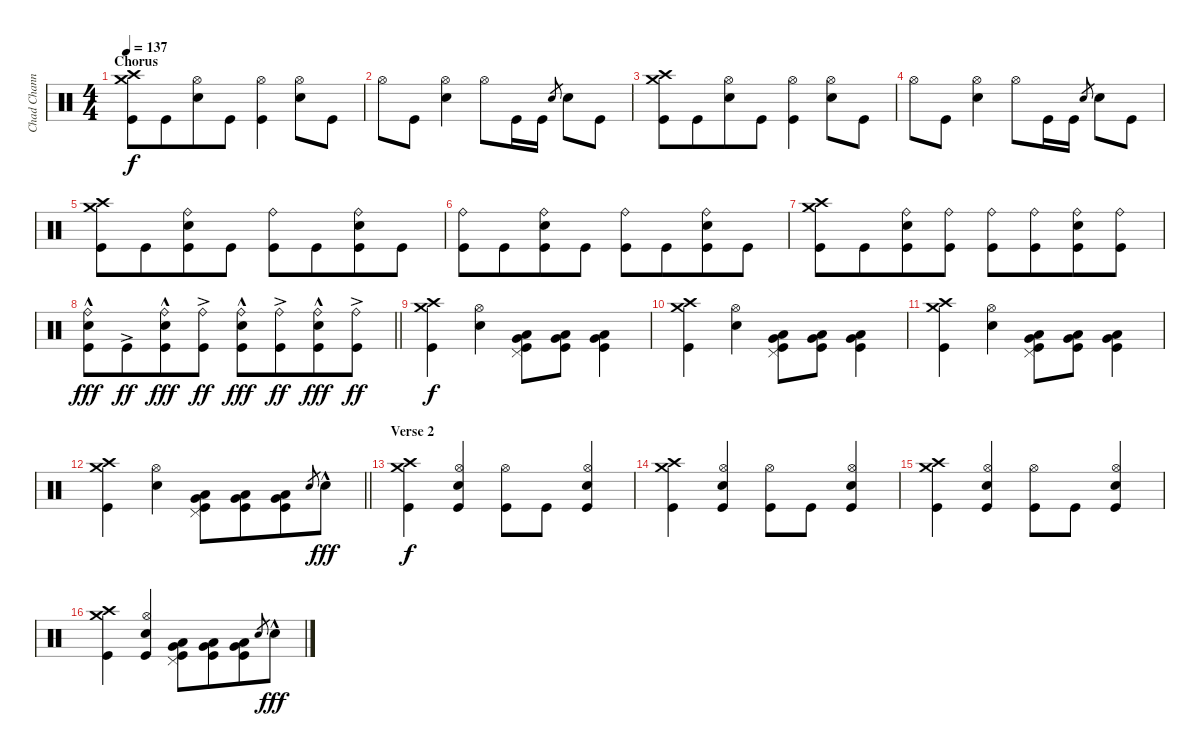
\track ("Chad Channing" "Chad Chann") {instrument percussion}
\staff {score}
\articulation defaults
\ts (4 4)
\section ("" "Chorus")
\tempo 137
\clef neutral
\ks c
("Crash high (hit)" "Crash medium (hit)" "Kick (hit)").8{dy f} "Kick (hit)".8{beam merge} ("Hi-Hat (open)" "Snare (hit) 2").8 "Kick (hit)".8 ("Hi-Hat (open)" "Kick (hit)").4 ("Hi-Hat (open)" "Snare (hit) 2").8 "Kick (hit)".8 |
"Hi-Hat (open)".8 "Kick (hit)".8 ("Hi-Hat (open)" "Snare (hit) 2").4 "Hi-Hat (open)".8 "Kick (hit)".16 "Kick (hit)".16 "Snare (hit) 2".8{gr} "Snare (hit) 2".8{beam Down} "Kick (hit)".8{beam Down} |
("Crash high (hit)" "Crash medium (hit)" "Kick (hit)").8 "Kick (hit)".8{beam merge} ("Hi-Hat (open)" "Snare (hit) 2").8 "Kick (hit)".8 ("Hi-Hat (open)" "Kick (hit)").4 ("Hi-Hat (open)" "Snare (hit) 2").8 "Kick (hit)".8 |
"Hi-Hat (open)".8 "Kick (hit)".8 ("Hi-Hat (open)" "Snare (hit) 2").4 "Hi-Hat (open)".8 "Kick (hit)".16 "Kick (hit)".16 "Snare (hit) 2".8{gr} "Snare (hit) 2".8{beam Down} "Kick (hit)".8{beam Down} |
("Crash medium (hit)" "Crash high (hit)" "Kick (hit)").8 "Kick (hit)".8{beam merge} ("Ride (bell)" "Snare (hit) 2" "Kick (hit)").8 "Kick (hit)".8 ("Ride (bell)" "Kick (hit)").8 "Kick (hit)".8{beam merge} ("Ride (bell)" "Snare (hit) 2" "Kick (hit)").8 "Kick (hit)".8 |
("Ride (bell)" "Kick (hit)").8 "Kick (hit)".8{beam merge} ("Ride (bell)" "Snare (hit) 2" "Kick (hit)").8 "Kick (hit)".8 ("Ride (bell)" "Kick (hit)").8 "Kick (hit)".8{beam merge} ("Ride (bell)" "Snare (hit) 2" "Kick (hit)").8 "Kick (hit)".8 |
("Crash medium (hit)" "Crash high (hit)" "Kick (hit)").8 "Kick (hit)".8{beam merge} ("Ride (bell)" "Snare (hit) 2" "Kick (hit)").8 ("Ride (bell)" "Kick (hit)").8 ("Ride (bell)" "Kick (hit)").8 ("Ride (bell)" "Kick (hit)").8{beam merge} ("Ride (bell)" "Snare (hit) 2" "Kick (hit)").8 ("Ride (bell)" "Kick (hit)").8 |
\barLineRight lightlight
("Ride (bell)" "Snare (hit) 2" "Kick (hit)"{hac}).8{dy fff} "Kick (hit)"{ac}.8{dy ff beam merge} ("Ride (bell)" "Snare (hit) 2" "Kick (hit)"{hac}).8{dy fff} ("Ride (bell)" "Kick (hit)"{ac}).8{dy ff} ("Ride (bell)" "Snare (hit) 2" "Kick (hit)"{hac}).8{dy fff} ("Ride (bell)" "Kick (hit)"{ac}).8{dy ff beam merge} ("Ride (bell)" "Snare (hit) 2" "Kick (hit)"{hac}).8{dy fff} ("Ride (bell)" "Kick (hit)"{ac}).8{dy ff} |
("Crash medium (hit)" "Crash high (hit)" "Kick (hit)").4{dy f} ("Hi-Hat (open)" "Snare (hit) 2").4 ("Pedal Hi-Hat (hit)" "Very Low Tom (hit)" "Low Floor Tom (hit)" "Kick (hit)").8{beam Down} ("Very Low Tom (hit)" "Low Floor Tom (hit)" "Kick (hit)").8{beam Down} ("Very Low Tom (hit)" "Low Floor Tom (hit)" "Kick (hit)").4{beam Down} |
("Crash medium (hit)" "Crash high (hit)" "Kick (hit)").4 ("Hi-Hat (open)" "Snare (hit) 2").4 ("Pedal Hi-Hat (hit)" "Very Low Tom (hit)" "Low Floor Tom (hit)" "Kick (hit)").8{beam Down} ("Very Low Tom (hit)" "Low Floor Tom (hit)" "Kick (hit)").8{beam Down} ("Very Low Tom (hit)" "Low Floor Tom (hit)" "Kick (hit)").4{beam Down} |
("Crash medium (hit)" "Crash high (hit)" "Kick (hit)").4 ("Hi-Hat (open)" "Snare (hit) 2").4 ("Pedal Hi-Hat (hit)" "Very Low Tom (hit)" "Low Floor Tom (hit)" "Kick (hit)").8{beam Down} ("Very Low Tom (hit)" "Low Floor Tom (hit)" "Kick (hit)").8{beam Down} ("Very Low Tom (hit)" "Low Floor Tom (hit)" "Kick (hit)").4{beam Down} |
\barLineRight lightlight
("Crash medium (hit)" "Crash high (hit)" "Kick (hit)").4 ("Hi-Hat (open)" "Snare (hit) 2").4 ("Pedal Hi-Hat (hit)" "Very Low Tom (hit)" "Low Floor Tom (hit)" "Kick (hit)").8{beam Down} ("Very Low Tom (hit)" "Low Floor Tom (hit)" "Kick (hit)").8{beam Down beam merge} ("Very Low Tom (hit)" "Low Floor Tom (hit)" "Kick (hit)").8{beam Down} "Snare (hit) 2".8{gr} "Snare (hit) 2"{hac}.8{dy fff beam Down} |
\section ("" "Verse 2")
("Crash medium (hit)" "Crash high (hit)" "Kick (hit)").4{dy f} ("Hi-Hat (open)" "Snare (hit) 2" "Kick (hit)").4 ("Hi-Hat (open)" "Kick (hit)").8 "Kick (hit)".8 ("Hi-Hat (open)" "Snare (hit) 2" "Kick (hit)").4 |
("Crash medium (hit)" "Crash high (hit)" "Kick (hit)").4 ("Hi-Hat (open)" "Snare (hit) 2" "Kick (hit)").4 ("Hi-Hat (open)" "Kick (hit)").8 "Kick (hit)".8 ("Hi-Hat (open)" "Snare (hit) 2" "Kick (hit)").4 |
("Crash medium (hit)" "Crash high (hit)" "Kick (hit)").4 ("Hi-Hat (open)" "Snare (hit) 2" "Kick (hit)").4 ("Hi-Hat (open)" "Kick (hit)").8 "Kick (hit)".8 ("Hi-Hat (open)" "Snare (hit) 2" "Kick (hit)").4 |
("Crash medium (hit)" "Crash high (hit)" "Kick (hit)").4 ("Hi-Hat (open)" "Snare (hit) 2" "Kick (hit)").4 ("Pedal Hi-Hat (hit)" "Very Low Tom (hit)" "Low Floor Tom (hit)" "Kick (hit)").8{beam Down} ("Very Low Tom (hit)" "Low Floor Tom (hit)" "Kick (hit)").8{beam Down beam merge} ("Very Low Tom (hit)" "Low Floor Tom (hit)" "Kick (hit)").8{beam Down} "Snare (hit) 2".8{gr} "Snare (hit) 2"{hac}.8{dy fff beam Down}
